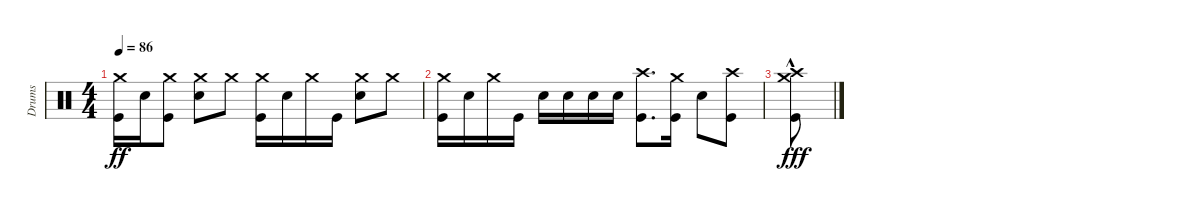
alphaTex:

\track ("Drums" "Drums") {instrument percussion}
\staff {score}
\articulation defaults
\ts (4 4)
\tempo 86
\clef neutral
\ks c
("Crash medium (hit)" "Kick (hit)").16{dy ff} "Snare (hit) 2".16 ("Crash medium (hit)" "Kick (hit)").8 ("Crash medium (hit)" "Snare (hit) 2").8 "Crash medium (hit)".8 ("Crash medium (hit)" "Kick (hit)").16 "Snare (hit) 2".16 "Crash medium (hit)".16 "Kick (hit)".16 ("Crash medium (hit)" "Snare (hit) 2").8 "Crash medium (hit)".8 |
("Crash medium (hit)" "Kick (hit)").16 "Snare (hit) 2".16 "Crash medium (hit)".16 "Kick (hit)".16 "Snare (hit) 2".16 "Snare (hit) 2".16 "Snare (hit) 2".16 "Snare (hit) 2".16 ("Crash high (hit)" "Kick (hit)").8{d} ("Crash medium (hit)" "Kick (hit)").16 "Snare (hit) 2".8 ("Crash high (hit)" "Kick (hit)").8 |
("Crash high (hit)"{hac} "Crash medium (hit)"{hac} "Kick (hit)"{hac}).8{dy fff}
